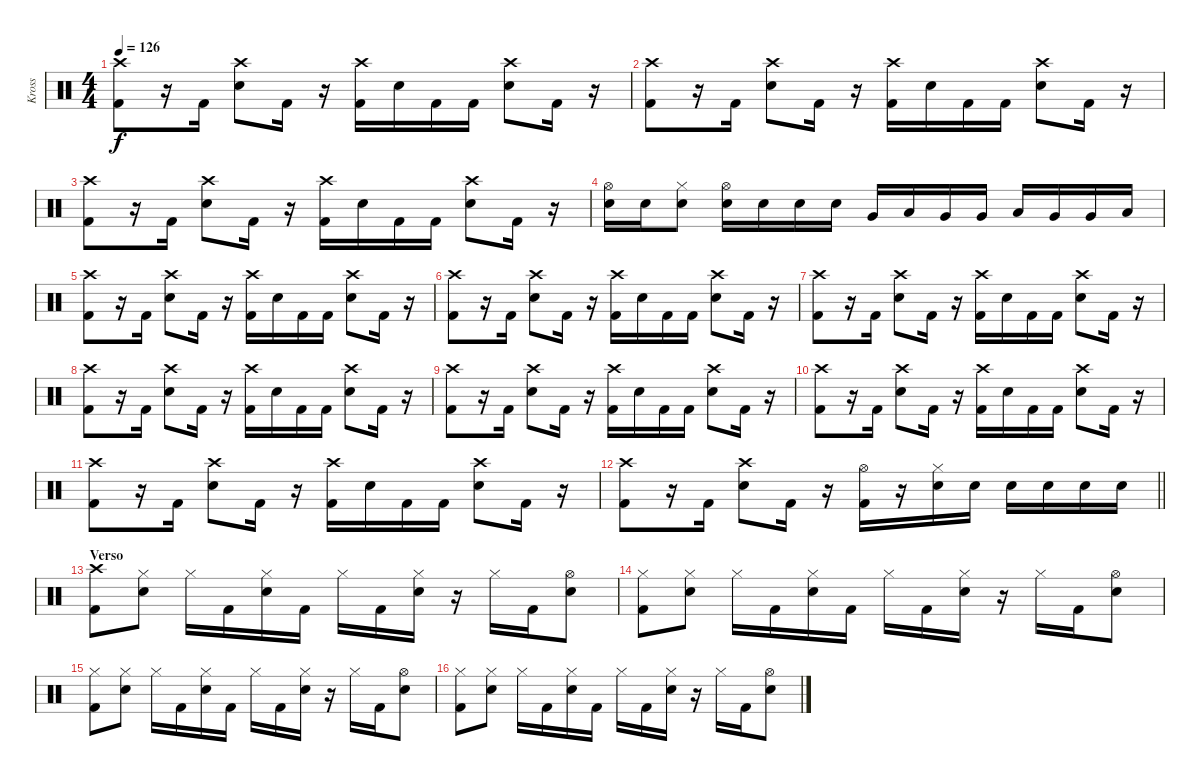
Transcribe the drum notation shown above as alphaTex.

\track ("Kross" "Kross") {instrument percussion}
\staff {score}
\articulation defaults
\ts (4 4)
\tempo 126
\clef neutral
\ks c
("Crash high (hit)" "Kick (hit) 2").8{dy f} r.16 "Kick (hit) 2".16 ("Crash high (hit)" "Electric Snare (hit)").8 "Kick (hit) 2".16 r.16 ("Crash high (hit)" "Kick (hit) 2").16 "Electric Snare (hit)".16 "Kick (hit) 2".16 "Kick (hit) 2".16 ("Crash high (hit)" "Electric Snare (hit)").8 "Kick (hit) 2".16 r.16 |
("Crash high (hit)" "Kick (hit) 2").8 r.16 "Kick (hit) 2".16 ("Crash high (hit)" "Electric Snare (hit)").8 "Kick (hit) 2".16 r.16 ("Crash high (hit)" "Kick (hit) 2").16 "Electric Snare (hit)".16 "Kick (hit) 2".16 "Kick (hit) 2".16 ("Crash high (hit)" "Electric Snare (hit)").8 "Kick (hit) 2".16 r.16 |
("Crash high (hit)" "Kick (hit) 2").8 r.16 "Kick (hit) 2".16 ("Crash high (hit)" "Electric Snare (hit)").8 "Kick (hit) 2".16 r.16 ("Crash high (hit)" "Kick (hit) 2").16 "Electric Snare (hit)".16 "Kick (hit) 2".16 "Kick (hit) 2".16 ("Crash high (hit)" "Electric Snare (hit)").8 "Kick (hit) 2".16 r.16 |
("Hi-Hat (open)" "Electric Snare (hit)").16 "Electric Snare (hit)".16 ("Hi-Hat (closed)" "Electric Snare (hit)").8 ("Hi-Hat (open)" "Electric Snare (hit)").16 "Electric Snare (hit)".16 "Electric Snare (hit)".16 "Electric Snare (hit)".16 "Very Low Tom (hit)".16 "Low Tom (hit)".16 "Very Low Tom (hit)".16 "Very Low Tom (hit)".16 "Low Tom (hit)".16 "Very Low Tom (hit)".16 "Very Low Tom (hit)".16 "Low Tom (hit)".16 |
("Crash high (hit)" "Kick (hit) 2").8 r.16 "Kick (hit) 2".16 ("Crash high (hit)" "Electric Snare (hit)").8 "Kick (hit) 2".16 r.16 ("Crash high (hit)" "Kick (hit) 2").16 "Electric Snare (hit)".16 "Kick (hit) 2".16 "Kick (hit) 2".16 ("Crash high (hit)" "Electric Snare (hit)").8 "Kick (hit) 2".16 r.16 |
("Crash high (hit)" "Kick (hit) 2").8 r.16 "Kick (hit) 2".16 ("Crash high (hit)" "Electric Snare (hit)").8 "Kick (hit) 2".16 r.16 ("Crash high (hit)" "Kick (hit) 2").16 "Electric Snare (hit)".16 "Kick (hit) 2".16 "Kick (hit) 2".16 ("Crash high (hit)" "Electric Snare (hit)").8 "Kick (hit) 2".16 r.16 |
("Crash high (hit)" "Kick (hit) 2").8 r.16 "Kick (hit) 2".16 ("Crash high (hit)" "Electric Snare (hit)").8 "Kick (hit) 2".16 r.16 ("Crash high (hit)" "Kick (hit) 2").16 "Electric Snare (hit)".16 "Kick (hit) 2".16 "Kick (hit) 2".16 ("Crash high (hit)" "Electric Snare (hit)").8 "Kick (hit) 2".16 r.16 |
("Crash high (hit)" "Kick (hit) 2").8 r.16 "Kick (hit) 2".16 ("Crash high (hit)" "Electric Snare (hit)").8 "Kick (hit) 2".16 r.16 ("Crash high (hit)" "Kick (hit) 2").16 "Electric Snare (hit)".16 "Kick (hit) 2".16 "Kick (hit) 2".16 ("Crash high (hit)" "Electric Snare (hit)").8 "Kick (hit) 2".16 r.16 |
("Crash high (hit)" "Kick (hit) 2").8 r.16 "Kick (hit) 2".16 ("Crash high (hit)" "Electric Snare (hit)").8 "Kick (hit) 2".16 r.16 ("Crash high (hit)" "Kick (hit) 2").16 "Electric Snare (hit)".16 "Kick (hit) 2".16 "Kick (hit) 2".16 ("Crash high (hit)" "Electric Snare (hit)").8 "Kick (hit) 2".16 r.16 |
("Crash high (hit)" "Kick (hit) 2").8 r.16 "Kick (hit) 2".16 ("Crash high (hit)" "Electric Snare (hit)").8 "Kick (hit) 2".16 r.16 ("Crash high (hit)" "Kick (hit) 2").16 "Electric Snare (hit)".16 "Kick (hit) 2".16 "Kick (hit) 2".16 ("Crash high (hit)" "Electric Snare (hit)").8 "Kick (hit) 2".16 r.16 |
("Crash high (hit)" "Kick (hit) 2").8 r.16 "Kick (hit) 2".16 ("Crash high (hit)" "Electric Snare (hit)").8 "Kick (hit) 2".16 r.16 ("Crash high (hit)" "Kick (hit) 2").16 "Electric Snare (hit)".16 "Kick (hit) 2".16 "Kick (hit) 2".16 ("Crash high (hit)" "Electric Snare (hit)").8 "Kick (hit) 2".16 r.16 |
\barLineRight lightlight
("Crash high (hit)" "Kick (hit) 2").8 r.16 "Kick (hit) 2".16 ("Crash high (hit)" "Electric Snare (hit)").8 "Kick (hit) 2".16 r.16 ("Hi-Hat (open)" "Kick (hit) 2").16 r.16 ("Hi-Hat (closed)" "Electric Snare (hit)").16 "Electric Snare (hit)".16 "Electric Snare (hit)".16 "Electric Snare (hit)".16 "Electric Snare (hit)".16 "Electric Snare (hit)".16 |
\section ("" "Verso")
("Crash high (hit)" "Kick (hit) 2").8 ("Hi-Hat (closed)" "Electric Snare (hit)").8 "Hi-Hat (closed)".16 "Kick (hit) 2".16 ("Hi-Hat (closed)" "Electric Snare (hit)").16 "Kick (hit) 2".16 "Hi-Hat (closed)".16 "Kick (hit) 2".16 ("Hi-Hat (closed)" "Electric Snare (hit)").16 r.16 "Hi-Hat (closed)".16 "Kick (hit) 2".16 ("Hi-Hat (open)" "Electric Snare (hit)").8 |
("Hi-Hat (closed)" "Kick (hit) 2").8 ("Hi-Hat (closed)" "Electric Snare (hit)").8 "Hi-Hat (closed)".16 "Kick (hit) 2".16 ("Hi-Hat (closed)" "Electric Snare (hit)").16 "Kick (hit) 2".16 "Hi-Hat (closed)".16 "Kick (hit) 2".16 ("Hi-Hat (closed)" "Electric Snare (hit)").16 r.16 "Hi-Hat (closed)".16 "Kick (hit) 2".16 ("Hi-Hat (open)" "Electric Snare (hit)").8 |
("Hi-Hat (closed)" "Kick (hit) 2").8 ("Hi-Hat (closed)" "Electric Snare (hit)").8 "Hi-Hat (closed)".16 "Kick (hit) 2".16 ("Hi-Hat (closed)" "Electric Snare (hit)").16 "Kick (hit) 2".16 "Hi-Hat (closed)".16 "Kick (hit) 2".16 ("Hi-Hat (closed)" "Electric Snare (hit)").16 r.16 "Hi-Hat (closed)".16 "Kick (hit) 2".16 ("Hi-Hat (open)" "Electric Snare (hit)").8 |
("Hi-Hat (closed)" "Kick (hit) 2").8 ("Hi-Hat (closed)" "Electric Snare (hit)").8 "Hi-Hat (closed)".16 "Kick (hit) 2".16 ("Hi-Hat (closed)" "Electric Snare (hit)").16 "Kick (hit) 2".16 "Hi-Hat (closed)".16 "Kick (hit) 2".16 ("Hi-Hat (closed)" "Electric Snare (hit)").16 r.16 "Hi-Hat (closed)".16 "Kick (hit) 2".16 ("Hi-Hat (open)" "Electric Snare (hit)").8
